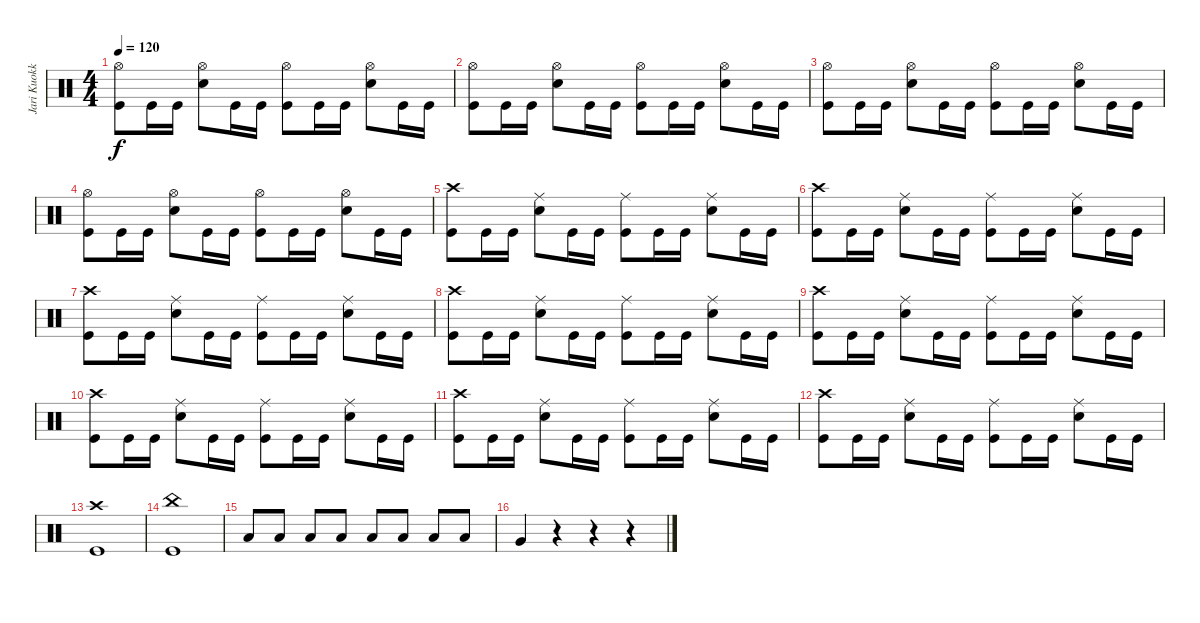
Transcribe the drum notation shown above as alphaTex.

\track ("Jari Kuokkanen" "Jari Kuokk") {instrument percussion bank 255}
\staff {score}
\articulation defaults
\ts (4 4)
\tempo 120
\clef neutral
\ks c
("Hi-Hat (open)" "Kick (hit)").8{dy f} "Kick (hit)".16 "Kick (hit)".16 ("Hi-Hat (open)" "Snare (hit) 2").8 "Kick (hit)".16 "Kick (hit)".16 ("Hi-Hat (open)" "Kick (hit)").8 "Kick (hit)".16 "Kick (hit)".16 ("Hi-Hat (open)" "Snare (hit) 2").8 "Kick (hit)".16 "Kick (hit)".16 |
("Hi-Hat (open)" "Kick (hit)").8 "Kick (hit)".16 "Kick (hit)".16 ("Hi-Hat (open)" "Snare (hit) 2").8 "Kick (hit)".16 "Kick (hit)".16 ("Hi-Hat (open)" "Kick (hit)").8 "Kick (hit)".16 "Kick (hit)".16 ("Hi-Hat (open)" "Snare (hit) 2").8 "Kick (hit)".16 "Kick (hit)".16 |
("Hi-Hat (open)" "Kick (hit)").8 "Kick (hit)".16 "Kick (hit)".16 ("Hi-Hat (open)" "Snare (hit) 2").8 "Kick (hit)".16 "Kick (hit)".16 ("Hi-Hat (open)" "Kick (hit)").8 "Kick (hit)".16 "Kick (hit)".16 ("Hi-Hat (open)" "Snare (hit) 2").8 "Kick (hit)".16 "Kick (hit)".16 |
("Hi-Hat (open)" "Kick (hit)").8 "Kick (hit)".16 "Kick (hit)".16 ("Hi-Hat (open)" "Snare (hit) 2").8 "Kick (hit)".16 "Kick (hit)".16 ("Hi-Hat (open)" "Kick (hit)").8 "Kick (hit)".16 "Kick (hit)".16 ("Hi-Hat (open)" "Snare (hit) 2").8 "Kick (hit)".16 "Kick (hit)".16 |
("Crash high (hit)" "Kick (hit)").8 "Kick (hit)".16 "Kick (hit)".16 ("Ride (middle)" "Snare (hit) 2").8 "Kick (hit)".16 "Kick (hit)".16 ("Ride (middle)" "Kick (hit)").8 "Kick (hit)".16 "Kick (hit)".16 ("Ride (middle)" "Snare (hit) 2").8 "Kick (hit)".16 "Kick (hit)".16 |
("Crash high (hit)" "Kick (hit)").8 "Kick (hit)".16 "Kick (hit)".16 ("Ride (middle)" "Snare (hit) 2").8 "Kick (hit)".16 "Kick (hit)".16 ("Ride (middle)" "Kick (hit)").8 "Kick (hit)".16 "Kick (hit)".16 ("Ride (middle)" "Snare (hit) 2").8 "Kick (hit)".16 "Kick (hit)".16 |
("Crash high (hit)" "Kick (hit)").8 "Kick (hit)".16 "Kick (hit)".16 ("Ride (middle)" "Snare (hit) 2").8 "Kick (hit)".16 "Kick (hit)".16 ("Ride (middle)" "Kick (hit)").8 "Kick (hit)".16 "Kick (hit)".16 ("Ride (middle)" "Snare (hit) 2").8 "Kick (hit)".16 "Kick (hit)".16 |
("Crash high (hit)" "Kick (hit)").8 "Kick (hit)".16 "Kick (hit)".16 ("Ride (middle)" "Snare (hit) 2").8 "Kick (hit)".16 "Kick (hit)".16 ("Ride (middle)" "Kick (hit)").8 "Kick (hit)".16 "Kick (hit)".16 ("Ride (middle)" "Snare (hit) 2").8 "Kick (hit)".16 "Kick (hit)".16 |
("Crash high (hit)" "Kick (hit)").8 "Kick (hit)".16 "Kick (hit)".16 ("Ride (middle)" "Snare (hit) 2").8 "Kick (hit)".16 "Kick (hit)".16 ("Ride (middle)" "Kick (hit)").8 "Kick (hit)".16 "Kick (hit)".16 ("Ride (middle)" "Snare (hit) 2").8 "Kick (hit)".16 "Kick (hit)".16 |
("Crash high (hit)" "Kick (hit)").8 "Kick (hit)".16 "Kick (hit)".16 ("Ride (middle)" "Snare (hit) 2").8 "Kick (hit)".16 "Kick (hit)".16 ("Ride (middle)" "Kick (hit)").8 "Kick (hit)".16 "Kick (hit)".16 ("Ride (middle)" "Snare (hit) 2").8 "Kick (hit)".16 "Kick (hit)".16 |
("Crash high (hit)" "Kick (hit)").8 "Kick (hit)".16 "Kick (hit)".16 ("Ride (middle)" "Snare (hit) 2").8 "Kick (hit)".16 "Kick (hit)".16 ("Ride (middle)" "Kick (hit)").8 "Kick (hit)".16 "Kick (hit)".16 ("Ride (middle)" "Snare (hit) 2").8 "Kick (hit)".16 "Kick (hit)".16 |
("Crash high (hit)" "Kick (hit)").8 "Kick (hit)".16 "Kick (hit)".16 ("Ride (middle)" "Snare (hit) 2").8 "Kick (hit)".16 "Kick (hit)".16 ("Ride (middle)" "Kick (hit)").8 "Kick (hit)".16 "Kick (hit)".16 ("Ride (middle)" "Snare (hit) 2").8 "Kick (hit)".16 "Kick (hit)".16 |
("Crash high (hit)" "Kick (hit)").1 |
("China (hit)" "Kick (hit)").1 |
"Low Floor Tom (hit)".8 "Low Floor Tom (hit)".8 "Low Floor Tom (hit)".8 "Low Floor Tom (hit)".8 "Low Floor Tom (hit)".8 "Low Floor Tom (hit)".8 "Low Floor Tom (hit)".8 "Low Floor Tom (hit)".8 |
"Very Low Tom (hit)".4 r.4 r.4 r.4
